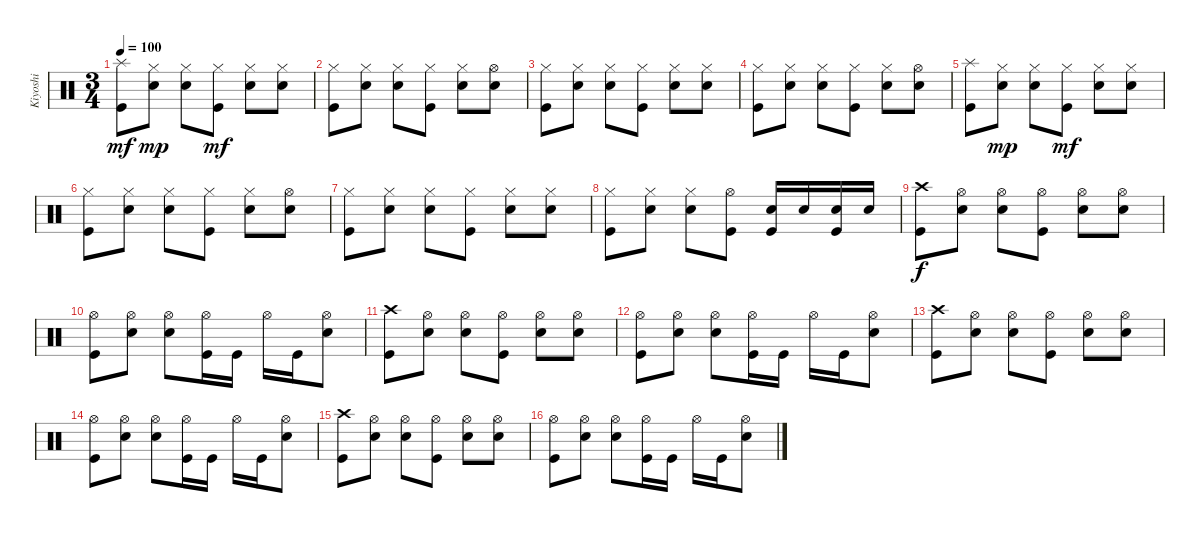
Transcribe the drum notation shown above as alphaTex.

\track ("Kiyoshi" "Kiyoshi") {instrument percussion}
\staff {score}
\articulation defaults
\ts (3 4)
\tempo 100
\clef neutral
\ks c
("Splash (hit)" "Kick (hit)").8{dy mf} ("Electric Snare (hit)" "Hi-Hat (closed)").8{dy mp} ("Electric Snare (hit)" "Hi-Hat (closed)").8 ("Kick (hit)" "Hi-Hat (closed)").8{dy mf} ("Electric Snare (hit)" "Hi-Hat (closed)").8 ("Electric Snare (hit)" "Hi-Hat (closed)").8 |
("Kick (hit)" "Hi-Hat (closed)").8 ("Electric Snare (hit)" "Hi-Hat (closed)").8 ("Electric Snare (hit)" "Hi-Hat (closed)").8 ("Kick (hit)" "Hi-Hat (closed)").8 ("Electric Snare (hit)" "Hi-Hat (closed)").8 ("Electric Snare (hit)" "Hi-Hat (open)").8 |
("Kick (hit)" "Hi-Hat (closed)").8 ("Electric Snare (hit)" "Hi-Hat (closed)").8 ("Electric Snare (hit)" "Hi-Hat (closed)").8 ("Kick (hit)" "Hi-Hat (closed)").8 ("Electric Snare (hit)" "Hi-Hat (closed)").8 ("Electric Snare (hit)" "Hi-Hat (closed)").8 |
("Kick (hit)" "Hi-Hat (closed)").8 ("Electric Snare (hit)" "Hi-Hat (closed)").8 ("Electric Snare (hit)" "Hi-Hat (closed)").8 ("Kick (hit)" "Hi-Hat (closed)").8 ("Electric Snare (hit)" "Hi-Hat (closed)").8 ("Electric Snare (hit)" "Hi-Hat (open)").8 |
("Splash (hit)" "Kick (hit)").8 ("Electric Snare (hit)" "Hi-Hat (closed)").8{dy mp} ("Electric Snare (hit)" "Hi-Hat (closed)").8 ("Kick (hit)" "Hi-Hat (closed)").8{dy mf} ("Electric Snare (hit)" "Hi-Hat (closed)").8 ("Electric Snare (hit)" "Hi-Hat (closed)").8 |
("Kick (hit)" "Hi-Hat (closed)").8 ("Electric Snare (hit)" "Hi-Hat (closed)").8 ("Electric Snare (hit)" "Hi-Hat (closed)").8 ("Kick (hit)" "Hi-Hat (closed)").8 ("Electric Snare (hit)" "Hi-Hat (closed)").8 ("Electric Snare (hit)" "Hi-Hat (open)").8 |
("Kick (hit)" "Hi-Hat (closed)").8 ("Electric Snare (hit)" "Hi-Hat (closed)").8 ("Electric Snare (hit)" "Hi-Hat (closed)").8 ("Kick (hit)" "Hi-Hat (closed)").8 ("Electric Snare (hit)" "Hi-Hat (closed)").8 ("Electric Snare (hit)" "Hi-Hat (closed)").8 |
("Kick (hit)" "Hi-Hat (closed)").8 ("Electric Snare (hit)" "Hi-Hat (closed)").8 ("Electric Snare (hit)" "Hi-Hat (closed)").8 ("Kick (hit)" "Hi-Hat (open)").8 ("Electric Snare (hit)" "Kick (hit)").16 "Electric Snare (hit)".16 ("Electric Snare (hit)" "Kick (hit)").16 "Electric Snare (hit)".16 |
("Kick (hit)" "Crash high (hit)").8{dy f} ("Hi-Hat (open)" "Electric Snare (hit)").8 ("Hi-Hat (open)" "Electric Snare (hit)").8 ("Kick (hit)" "Hi-Hat (open)").8 ("Electric Snare (hit)" "Hi-Hat (open)").8 ("Electric Snare (hit)" "Hi-Hat (open)").8 |
("Kick (hit)" "Hi-Hat (open)").8 ("Electric Snare (hit)" "Hi-Hat (open)").8 ("Electric Snare (hit)" "Hi-Hat (open)").8 ("Kick (hit)" "Hi-Hat (open)").16 "Kick (hit)".16 "Hi-Hat (open)".16 "Kick (hit)".16 ("Hi-Hat (open)" "Electric Snare (hit)").8 |
("Kick (hit)" "Crash high (hit)").8 ("Hi-Hat (open)" "Electric Snare (hit)").8 ("Hi-Hat (open)" "Electric Snare (hit)").8 ("Kick (hit)" "Hi-Hat (open)").8 ("Electric Snare (hit)" "Hi-Hat (open)").8 ("Electric Snare (hit)" "Hi-Hat (open)").8 |
("Kick (hit)" "Hi-Hat (open)").8 ("Electric Snare (hit)" "Hi-Hat (open)").8 ("Electric Snare (hit)" "Hi-Hat (open)").8 ("Kick (hit)" "Hi-Hat (open)").16 "Kick (hit)".16 "Hi-Hat (open)".16 "Kick (hit)".16 ("Hi-Hat (open)" "Electric Snare (hit)").8 |
("Kick (hit)" "Crash high (hit)").8 ("Hi-Hat (open)" "Electric Snare (hit)").8 ("Hi-Hat (open)" "Electric Snare (hit)").8 ("Kick (hit)" "Hi-Hat (open)").8 ("Electric Snare (hit)" "Hi-Hat (open)").8 ("Electric Snare (hit)" "Hi-Hat (open)").8 |
("Kick (hit)" "Hi-Hat (open)").8 ("Electric Snare (hit)" "Hi-Hat (open)").8 ("Electric Snare (hit)" "Hi-Hat (open)").8 ("Kick (hit)" "Hi-Hat (open)").16 "Kick (hit)".16 "Hi-Hat (open)".16 "Kick (hit)".16 ("Hi-Hat (open)" "Electric Snare (hit)").8 |
("Kick (hit)" "Crash high (hit)").8 ("Hi-Hat (open)" "Electric Snare (hit)").8 ("Hi-Hat (open)" "Electric Snare (hit)").8 ("Kick (hit)" "Hi-Hat (open)").8 ("Electric Snare (hit)" "Hi-Hat (open)").8 ("Electric Snare (hit)" "Hi-Hat (open)").8 |
("Kick (hit)" "Hi-Hat (open)").8 ("Electric Snare (hit)" "Hi-Hat (open)").8 ("Electric Snare (hit)" "Hi-Hat (open)").8 ("Kick (hit)" "Hi-Hat (open)").16 "Kick (hit)".16 "Hi-Hat (open)".16 "Kick (hit)".16 ("Hi-Hat (open)" "Electric Snare (hit)").8
